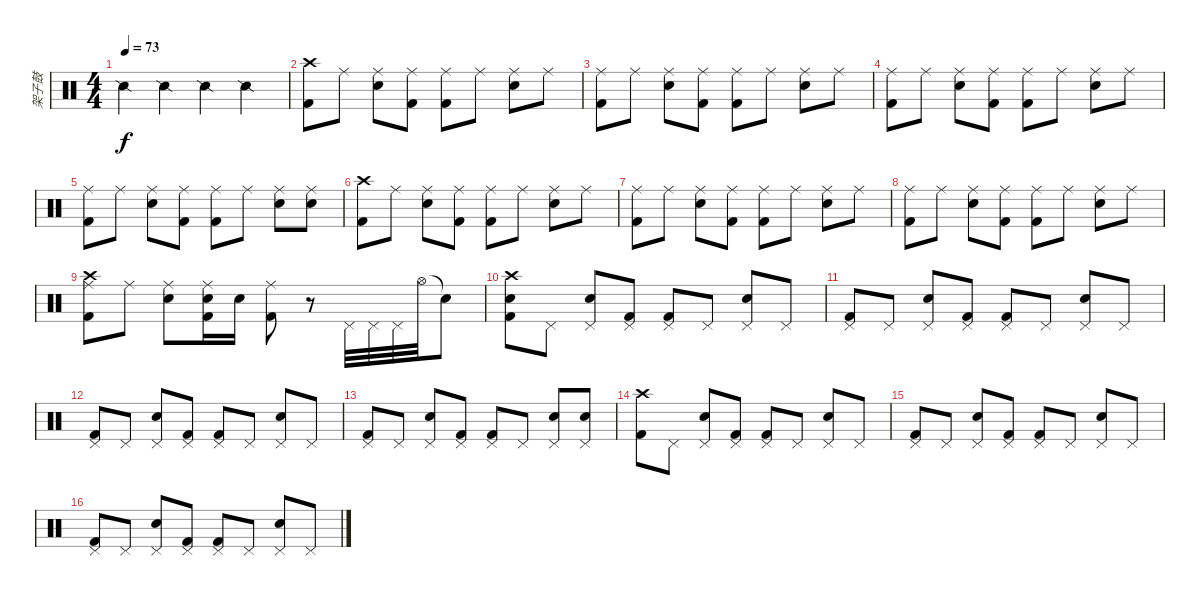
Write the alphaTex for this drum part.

\track ("架子鼓" "架子鼓") {instrument percussion}
\staff {score}
\articulation defaults
\ts (4 4)
\tempo 73
\clef neutral
\ks c "Snare (side stick) 2".4{dy f} "Snare (side stick) 2".4 "Snare (side stick) 2".4 "Snare (side stick) 2".4
|
("Crash high (hit)" "Kick (hit) 2").8 "Ride (middle)".8 ("Ride (middle)" "Electric Snare (hit)").8 ("Ride (middle)" "Kick (hit) 2").8 ("Ride (middle)" "Kick (hit) 2").8 "Ride (middle)".8 ("Ride (middle)" "Electric Snare (hit)").8 "Ride (middle)".8 |
("Ride (middle)" "Kick (hit) 2").8 "Ride (middle)".8 ("Ride (middle)" "Electric Snare (hit)").8 ("Ride (middle)" "Kick (hit) 2").8 ("Ride (middle)" "Kick (hit) 2").8 "Ride (middle)".8 ("Ride (middle)" "Electric Snare (hit)").8 "Ride (middle)".8 |
("Ride (middle)" "Kick (hit) 2").8 "Ride (middle)".8 ("Ride (middle)" "Electric Snare (hit)").8 ("Ride (middle)" "Kick (hit) 2").8 ("Ride (middle)" "Kick (hit) 2").8 "Ride (middle)".8 ("Ride (middle)" "Electric Snare (hit)").8 "Ride (middle)".8 |
("Ride (middle)" "Kick (hit) 2").8 "Ride (middle)".8 ("Ride (middle)" "Electric Snare (hit)").8 ("Ride (middle)" "Kick (hit) 2").8 ("Ride (middle)" "Kick (hit) 2").8 "Ride (middle)".8 ("Ride (middle)" "Electric Snare (hit)").8 ("Ride (middle)" "Electric Snare (hit)").8 |
("Crash high (hit)" "Kick (hit) 2").8 "Ride (middle)".8 ("Ride (middle)" "Electric Snare (hit)").8 ("Ride (middle)" "Kick (hit) 2").8 ("Ride (middle)" "Kick (hit) 2").8 "Ride (middle)".8 ("Ride (middle)" "Electric Snare (hit)").8 "Ride (middle)".8 |
("Ride (middle)" "Kick (hit) 2").8 "Ride (middle)".8 ("Ride (middle)" "Electric Snare (hit)").8 ("Ride (middle)" "Kick (hit) 2").8 ("Ride (middle)" "Kick (hit) 2").8 "Ride (middle)".8 ("Ride (middle)" "Electric Snare (hit)").8 "Ride (middle)".8 |
("Ride (middle)" "Kick (hit) 2").8 "Ride (middle)".8 ("Ride (middle)" "Electric Snare (hit)").8 ("Ride (middle)" "Kick (hit) 2").8 ("Ride (middle)" "Kick (hit) 2").8 "Ride (middle)".8 ("Ride (middle)" "Electric Snare (hit)").8 "Ride (middle)".8 |
("Ride (middle)" "Crash high (hit)" "Kick (hit) 2").8 "Ride (middle)".8 ("Ride (middle)" "Electric Snare (hit)").8 ("Ride (middle)" "Electric Snare (hit)" "Kick (hit) 2").16 "Electric Snare (hit)".16 ("Ride (middle)" "Kick (hit) 2").8 r.8 "Pedal Hi-Hat (hit)".32 "Pedal Hi-Hat (hit)".32 "Pedal Hi-Hat (hit)".32 "Hi-Hat (open)".32 "Snare (hit)"{t}.8 |
("Crash high (hit)" "Kick (hit) 2" "Electric Snare (hit)").8 "Pedal Hi-Hat (hit)".8 ("Pedal Hi-Hat (hit)" "Electric Snare (hit)").8 ("Pedal Hi-Hat (hit)" "Kick (hit) 2").8 ("Pedal Hi-Hat (hit)" "Kick (hit) 2").8 "Pedal Hi-Hat (hit)".8 ("Pedal Hi-Hat (hit)" "Electric Snare (hit)").8 "Pedal Hi-Hat (hit)".8 |
("Pedal Hi-Hat (hit)" "Kick (hit) 2").8 "Pedal Hi-Hat (hit)".8 ("Pedal Hi-Hat (hit)" "Electric Snare (hit)").8 ("Pedal Hi-Hat (hit)" "Kick (hit) 2").8 ("Pedal Hi-Hat (hit)" "Kick (hit) 2").8 "Pedal Hi-Hat (hit)".8 ("Pedal Hi-Hat (hit)" "Electric Snare (hit)").8 "Pedal Hi-Hat (hit)".8 |
("Pedal Hi-Hat (hit)" "Kick (hit) 2").8 "Pedal Hi-Hat (hit)".8 ("Pedal Hi-Hat (hit)" "Electric Snare (hit)").8 ("Pedal Hi-Hat (hit)" "Kick (hit) 2").8 ("Pedal Hi-Hat (hit)" "Kick (hit) 2").8 "Pedal Hi-Hat (hit)".8 ("Pedal Hi-Hat (hit)" "Electric Snare (hit)").8 "Pedal Hi-Hat (hit)".8 |
("Pedal Hi-Hat (hit)" "Kick (hit) 2").8 "Pedal Hi-Hat (hit)".8 ("Pedal Hi-Hat (hit)" "Electric Snare (hit)").8 ("Pedal Hi-Hat (hit)" "Kick (hit) 2").8 ("Pedal Hi-Hat (hit)" "Kick (hit) 2").8 "Pedal Hi-Hat (hit)".8 ("Pedal Hi-Hat (hit)" "Electric Snare (hit)").8 ("Pedal Hi-Hat (hit)" "Electric Snare (hit)").8 |
("Crash high (hit)" "Kick (hit) 2").8 "Pedal Hi-Hat (hit)".8 ("Pedal Hi-Hat (hit)" "Electric Snare (hit)").8 ("Pedal Hi-Hat (hit)" "Kick (hit) 2").8 ("Pedal Hi-Hat (hit)" "Kick (hit) 2").8 "Pedal Hi-Hat (hit)".8 ("Pedal Hi-Hat (hit)" "Electric Snare (hit)").8 "Pedal Hi-Hat (hit)".8 |
("Pedal Hi-Hat (hit)" "Kick (hit) 2").8 "Pedal Hi-Hat (hit)".8 ("Pedal Hi-Hat (hit)" "Electric Snare (hit)").8 ("Pedal Hi-Hat (hit)" "Kick (hit) 2").8 ("Pedal Hi-Hat (hit)" "Kick (hit) 2").8 "Pedal Hi-Hat (hit)".8 ("Pedal Hi-Hat (hit)" "Electric Snare (hit)").8 "Pedal Hi-Hat (hit)".8 |
("Pedal Hi-Hat (hit)" "Kick (hit) 2").8 "Pedal Hi-Hat (hit)".8 ("Pedal Hi-Hat (hit)" "Electric Snare (hit)").8 ("Pedal Hi-Hat (hit)" "Kick (hit) 2").8 ("Pedal Hi-Hat (hit)" "Kick (hit) 2").8 "Pedal Hi-Hat (hit)".8 ("Pedal Hi-Hat (hit)" "Electric Snare (hit)").8 "Pedal Hi-Hat (hit)".8
